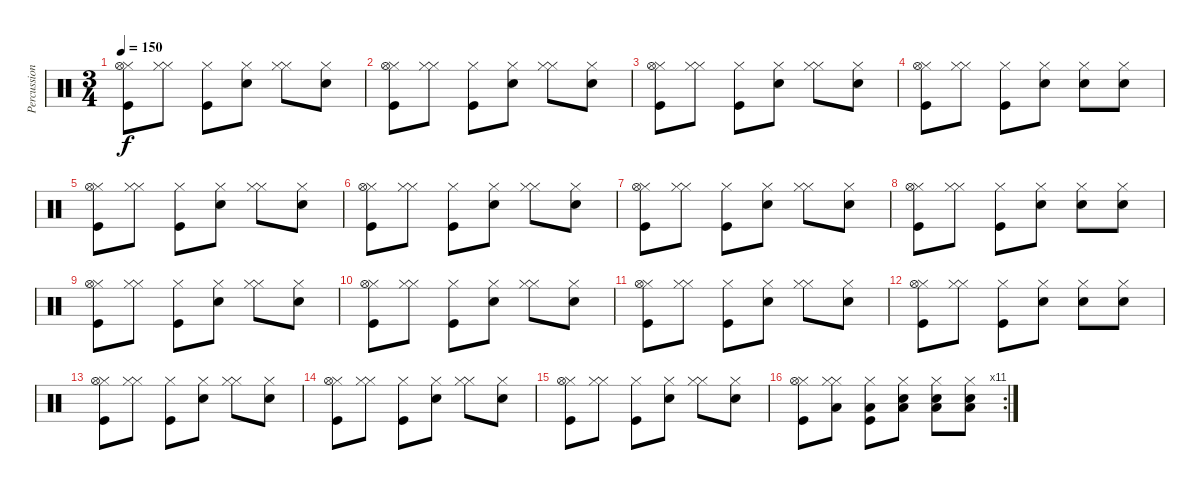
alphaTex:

\track ("Percussions" "Percussion") {instrument percussion}
\staff {score}
\articulation defaults
\ts (3 4)
\tempo 150
\clef neutral
\ks c
("Kick (hit)" "Hi-Hat (closed)" "Hi-Hat (open)").8{dy f} ("Hi-Hat (closed)" "Hi-Hat (closed)").8 ("Kick (hit)" "Hi-Hat (closed)").8 ("Electric Snare (hit)" "Hi-Hat (closed)").8 ("Hi-Hat (closed)" "Hi-Hat (closed)").8 ("Electric Snare (hit)" "Hi-Hat (closed)").8 |
("Kick (hit)" "Hi-Hat (closed)" "Hi-Hat (open)").8 ("Hi-Hat (closed)" "Hi-Hat (closed)").8 ("Kick (hit)" "Hi-Hat (closed)").8 ("Electric Snare (hit)" "Hi-Hat (closed)").8 ("Hi-Hat (closed)" "Hi-Hat (closed)").8 ("Electric Snare (hit)" "Hi-Hat (closed)").8 |
("Kick (hit)" "Hi-Hat (closed)" "Hi-Hat (open)").8 ("Hi-Hat (closed)" "Hi-Hat (closed)").8 ("Kick (hit)" "Hi-Hat (closed)").8 ("Electric Snare (hit)" "Hi-Hat (closed)").8 ("Hi-Hat (closed)" "Hi-Hat (closed)").8 ("Electric Snare (hit)" "Hi-Hat (closed)").8 |
("Kick (hit)" "Hi-Hat (closed)" "Hi-Hat (open)").8 ("Hi-Hat (closed)" "Hi-Hat (closed)").8 ("Kick (hit)" "Hi-Hat (closed)").8 ("Electric Snare (hit)" "Hi-Hat (closed)").8 ("Electric Snare (hit)" "Hi-Hat (closed)").8 ("Electric Snare (hit)" "Hi-Hat (closed)").8 |
("Kick (hit)" "Hi-Hat (closed)" "Hi-Hat (open)").8 ("Hi-Hat (closed)" "Hi-Hat (closed)").8 ("Kick (hit)" "Hi-Hat (closed)").8 ("Electric Snare (hit)" "Hi-Hat (closed)").8 ("Hi-Hat (closed)" "Hi-Hat (closed)").8 ("Electric Snare (hit)" "Hi-Hat (closed)").8 |
("Kick (hit)" "Hi-Hat (closed)" "Hi-Hat (open)").8 ("Hi-Hat (closed)" "Hi-Hat (closed)").8 ("Kick (hit)" "Hi-Hat (closed)").8 ("Electric Snare (hit)" "Hi-Hat (closed)").8 ("Hi-Hat (closed)" "Hi-Hat (closed)").8 ("Electric Snare (hit)" "Hi-Hat (closed)").8 |
("Kick (hit)" "Hi-Hat (closed)" "Hi-Hat (open)").8 ("Hi-Hat (closed)" "Hi-Hat (closed)").8 ("Kick (hit)" "Hi-Hat (closed)").8 ("Electric Snare (hit)" "Hi-Hat (closed)").8 ("Hi-Hat (closed)" "Hi-Hat (closed)").8 ("Electric Snare (hit)" "Hi-Hat (closed)").8 |
("Kick (hit)" "Hi-Hat (closed)" "Hi-Hat (open)").8 ("Hi-Hat (closed)" "Hi-Hat (closed)").8 ("Kick (hit)" "Hi-Hat (closed)").8 ("Electric Snare (hit)" "Hi-Hat (closed)").8 ("Electric Snare (hit)" "Hi-Hat (closed)").8 ("Electric Snare (hit)" "Hi-Hat (closed)").8 |
("Kick (hit)" "Hi-Hat (closed)" "Hi-Hat (open)").8 ("Hi-Hat (closed)" "Hi-Hat (closed)").8 ("Kick (hit)" "Hi-Hat (closed)").8 ("Electric Snare (hit)" "Hi-Hat (closed)").8 ("Hi-Hat (closed)" "Hi-Hat (closed)").8 ("Electric Snare (hit)" "Hi-Hat (closed)").8 |
("Kick (hit)" "Hi-Hat (closed)" "Hi-Hat (open)").8 ("Hi-Hat (closed)" "Hi-Hat (closed)").8 ("Kick (hit)" "Hi-Hat (closed)").8 ("Electric Snare (hit)" "Hi-Hat (closed)").8 ("Hi-Hat (closed)" "Hi-Hat (closed)").8 ("Electric Snare (hit)" "Hi-Hat (closed)").8 |
("Kick (hit)" "Hi-Hat (closed)" "Hi-Hat (open)").8 ("Hi-Hat (closed)" "Hi-Hat (closed)").8 ("Kick (hit)" "Hi-Hat (closed)").8 ("Electric Snare (hit)" "Hi-Hat (closed)").8 ("Hi-Hat (closed)" "Hi-Hat (closed)").8 ("Electric Snare (hit)" "Hi-Hat (closed)").8 |
("Kick (hit)" "Hi-Hat (closed)" "Hi-Hat (open)").8 ("Hi-Hat (closed)" "Hi-Hat (closed)").8 ("Kick (hit)" "Hi-Hat (closed)").8 ("Electric Snare (hit)" "Hi-Hat (closed)").8 ("Electric Snare (hit)" "Hi-Hat (closed)").8 ("Electric Snare (hit)" "Hi-Hat (closed)").8 |
("Kick (hit)" "Hi-Hat (closed)" "Hi-Hat (open)").8 ("Hi-Hat (closed)" "Hi-Hat (closed)").8 ("Kick (hit)" "Hi-Hat (closed)").8 ("Electric Snare (hit)" "Hi-Hat (closed)").8 ("Hi-Hat (closed)" "Hi-Hat (closed)").8 ("Electric Snare (hit)" "Hi-Hat (closed)").8 |
("Kick (hit)" "Hi-Hat (closed)" "Hi-Hat (open)").8 ("Hi-Hat (closed)" "Hi-Hat (closed)").8 ("Kick (hit)" "Hi-Hat (closed)").8 ("Electric Snare (hit)" "Hi-Hat (closed)").8 ("Hi-Hat (closed)" "Hi-Hat (closed)").8 ("Electric Snare (hit)" "Hi-Hat (closed)").8 |
("Kick (hit)" "Hi-Hat (closed)" "Hi-Hat (open)").8 ("Hi-Hat (closed)" "Hi-Hat (closed)").8 ("Kick (hit)" "Hi-Hat (closed)").8 ("Electric Snare (hit)" "Hi-Hat (closed)").8 ("Hi-Hat (closed)" "Hi-Hat (closed)").8 ("Electric Snare (hit)" "Hi-Hat (closed)").8 |
\rc 11
("Kick (hit)" "Hi-Hat (closed)" "Hi-Hat (open)").8 ("Hi-Hat (closed)" "Hi-Hat (closed)" "Low Tom (hit)").8 ("Kick (hit)" "Hi-Hat (closed)" "Low Tom (hit)").8 ("Electric Snare (hit)" "Hi-Hat (closed)" "Low Tom (hit)").8 ("Electric Snare (hit)" "Hi-Hat (closed)" "Low Tom (hit)").8 ("Electric Snare (hit)" "Hi-Hat (closed)" "Low Tom (hit)").8
